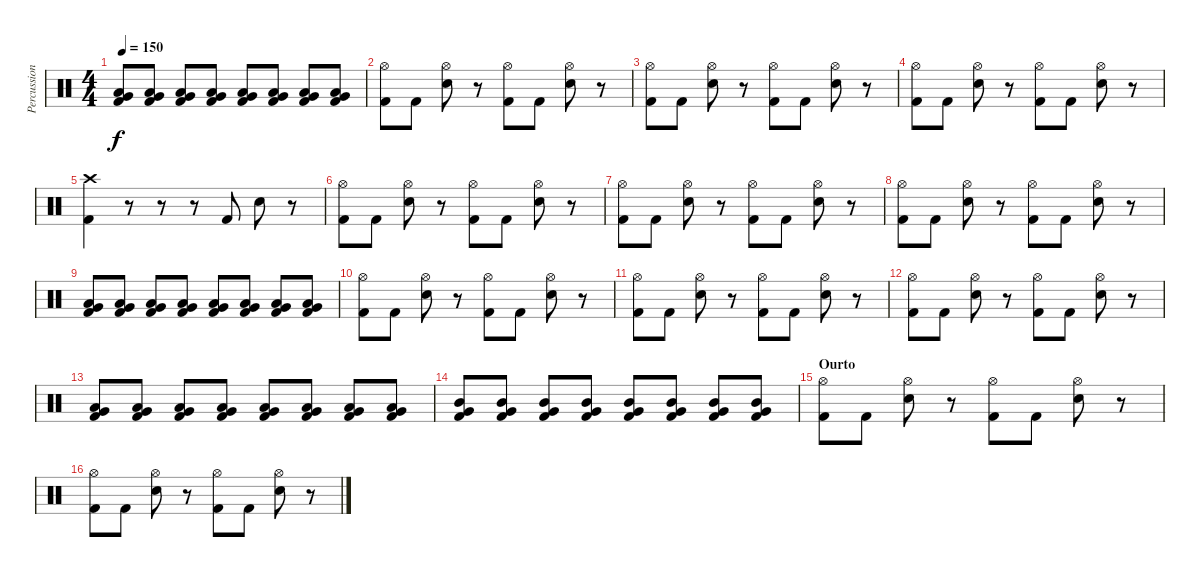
\track ("Percussion" "Percussion") {instrument percussion}
\staff {score}
\articulation defaults
\ts (4 4)
\tempo 150
\clef neutral
\ks c
("Low Tom (hit)" "Very Low Tom (hit)" "Kick (hit) 2").8{dy f} ("Low Tom (hit)" "Very Low Tom (hit)" "Kick (hit) 2").8 ("Low Tom (hit)" "Very Low Tom (hit)" "Kick (hit) 2").8 ("Low Tom (hit)" "Very Low Tom (hit)" "Kick (hit) 2").8 ("Low Tom (hit)" "Very Low Tom (hit)" "Kick (hit) 2").8 ("Low Tom (hit)" "Very Low Tom (hit)" "Kick (hit) 2").8 ("Low Tom (hit)" "Very Low Tom (hit)" "Kick (hit) 2").8 ("Low Tom (hit)" "Very Low Tom (hit)" "Kick (hit) 2").8 |
("Hi-Hat (open)" "Kick (hit) 2").8 "Kick (hit) 2".8 ("Hi-Hat (open)" "Electric Snare (hit)").8 r.8 ("Hi-Hat (open)" "Kick (hit) 2").8 "Kick (hit) 2".8 ("Hi-Hat (open)" "Electric Snare (hit)").8 r.8 |
("Hi-Hat (open)" "Kick (hit) 2").8 "Kick (hit) 2".8 ("Hi-Hat (open)" "Electric Snare (hit)").8 r.8 ("Hi-Hat (open)" "Kick (hit) 2").8 "Kick (hit) 2".8 ("Hi-Hat (open)" "Electric Snare (hit)").8 r.8 |
("Hi-Hat (open)" "Kick (hit) 2").8 "Kick (hit) 2".8 ("Hi-Hat (open)" "Electric Snare (hit)").8 r.8 ("Hi-Hat (open)" "Kick (hit) 2").8 "Kick (hit) 2".8 ("Hi-Hat (open)" "Electric Snare (hit)").8 r.8 |
("Crash high (hit)" "Kick (hit) 2").4 r.8 r.8 r.8 "Kick (hit) 2".8 "Electric Snare (hit)".8 r.8 |
("Hi-Hat (open)" "Kick (hit) 2").8 "Kick (hit) 2".8 ("Hi-Hat (open)" "Electric Snare (hit)").8 r.8 ("Hi-Hat (open)" "Kick (hit) 2").8 "Kick (hit) 2".8 ("Hi-Hat (open)" "Electric Snare (hit)").8 r.8 |
("Hi-Hat (open)" "Kick (hit) 2").8 "Kick (hit) 2".8 ("Hi-Hat (open)" "Electric Snare (hit)").8 r.8 ("Hi-Hat (open)" "Kick (hit) 2").8 "Kick (hit) 2".8 ("Hi-Hat (open)" "Electric Snare (hit)").8 r.8 |
("Hi-Hat (open)" "Kick (hit) 2").8 "Kick (hit) 2".8 ("Hi-Hat (open)" "Electric Snare (hit)").8 r.8 ("Hi-Hat (open)" "Kick (hit) 2").8 "Kick (hit) 2".8 ("Hi-Hat (open)" "Electric Snare (hit)").8 r.8 |
("Low Tom (hit)" "Very Low Tom (hit)" "Kick (hit) 2").8 ("Low Tom (hit)" "Very Low Tom (hit)" "Kick (hit) 2").8 ("Low Tom (hit)" "Very Low Tom (hit)" "Kick (hit) 2").8 ("Low Tom (hit)" "Very Low Tom (hit)" "Kick (hit) 2").8 ("Low Tom (hit)" "Very Low Tom (hit)" "Kick (hit) 2").8 ("Low Tom (hit)" "Very Low Tom (hit)" "Kick (hit) 2").8 ("Low Tom (hit)" "Very Low Tom (hit)" "Kick (hit) 2").8 ("Low Tom (hit)" "Very Low Tom (hit)" "Kick (hit) 2").8 |
("Hi-Hat (open)" "Kick (hit) 2").8 "Kick (hit) 2".8 ("Hi-Hat (open)" "Electric Snare (hit)").8 r.8 ("Hi-Hat (open)" "Kick (hit) 2").8 "Kick (hit) 2".8 ("Hi-Hat (open)" "Electric Snare (hit)").8 r.8 |
("Hi-Hat (open)" "Kick (hit) 2").8 "Kick (hit) 2".8 ("Hi-Hat (open)" "Electric Snare (hit)").8 r.8 ("Hi-Hat (open)" "Kick (hit) 2").8 "Kick (hit) 2".8 ("Hi-Hat (open)" "Electric Snare (hit)").8 r.8 |
("Hi-Hat (open)" "Kick (hit) 2").8 "Kick (hit) 2".8 ("Hi-Hat (open)" "Electric Snare (hit)").8 r.8 ("Hi-Hat (open)" "Kick (hit) 2").8 "Kick (hit) 2".8 ("Hi-Hat (open)" "Electric Snare (hit)").8 r.8 |
("Low Tom (hit)" "Very Low Tom (hit)" "Kick (hit) 2").8 ("Low Tom (hit)" "Very Low Tom (hit)" "Kick (hit) 2").8 ("Low Tom (hit)" "Very Low Tom (hit)" "Kick (hit) 2").8 ("Low Tom (hit)" "Very Low Tom (hit)" "Kick (hit) 2").8 ("Low Tom (hit)" "Very Low Tom (hit)" "Kick (hit) 2").8 ("Low Tom (hit)" "Very Low Tom (hit)" "Kick (hit) 2").8 ("Low Tom (hit)" "Very Low Tom (hit)" "Kick (hit) 2").8 ("Low Tom (hit)" "Very Low Tom (hit)" "Kick (hit) 2").8 |
("Mid Tom (hit)" "Very Low Tom (hit)" "Kick (hit) 2").8 ("Mid Tom (hit)" "Very Low Tom (hit)" "Kick (hit) 2").8 ("Mid Tom (hit)" "Very Low Tom (hit)" "Kick (hit) 2").8 ("Mid Tom (hit)" "Very Low Tom (hit)" "Kick (hit) 2").8 ("Mid Tom (hit)" "Very Low Tom (hit)" "Kick (hit) 2").8 ("Mid Tom (hit)" "Very Low Tom (hit)" "Kick (hit) 2").8 ("Mid Tom (hit)" "Very Low Tom (hit)" "Kick (hit) 2").8 ("Mid Tom (hit)" "Very Low Tom (hit)" "Kick (hit) 2").8 |
\section ("" "Ourto")
("Hi-Hat (open)" "Kick (hit) 2").8 "Kick (hit) 2".8 ("Hi-Hat (open)" "Electric Snare (hit)").8 r.8 ("Hi-Hat (open)" "Kick (hit) 2").8 "Kick (hit) 2".8 ("Hi-Hat (open)" "Electric Snare (hit)").8 r.8 |
("Hi-Hat (open)" "Kick (hit) 2").8 "Kick (hit) 2".8 ("Hi-Hat (open)" "Electric Snare (hit)").8 r.8 ("Hi-Hat (open)" "Kick (hit) 2").8 "Kick (hit) 2".8 ("Hi-Hat (open)" "Electric Snare (hit)").8 r.8
